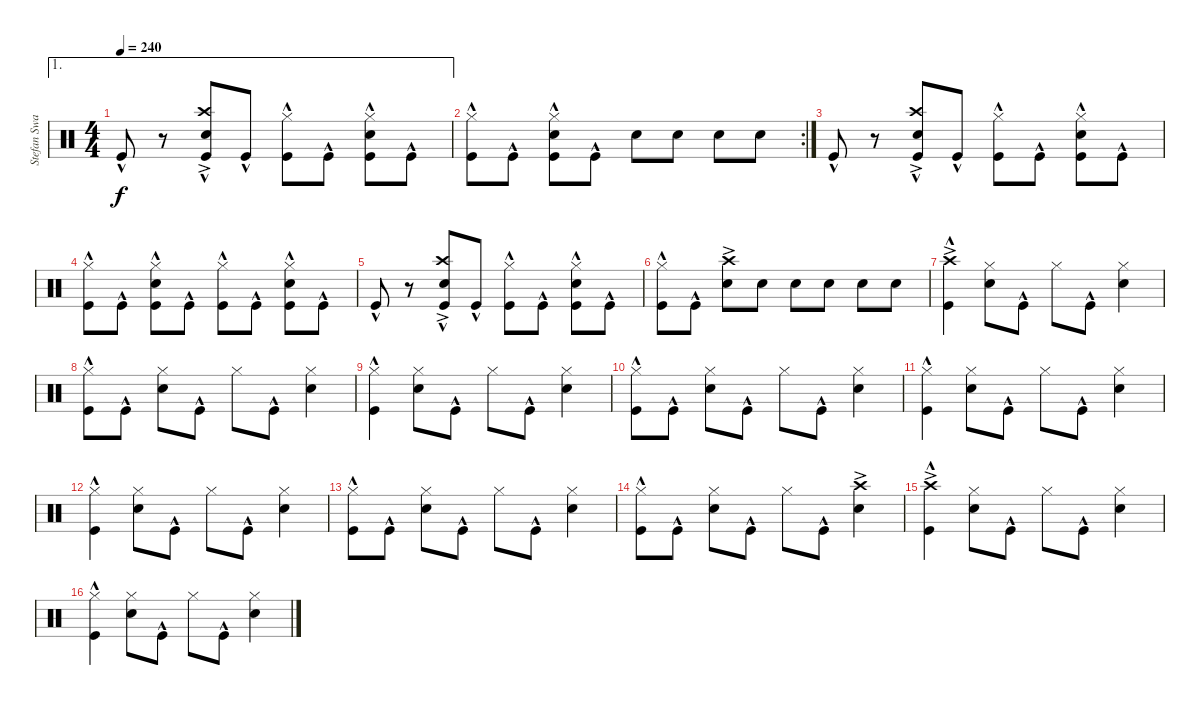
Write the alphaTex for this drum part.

\track ("Stefan Swarztmann" "Stefan Swa") {instrument percussion}
\staff {score}
\articulation defaults
\ae 1
\ts (4 4)
\tempo 240
\clef neutral
\ks c "Kick (hit)"{hac}.8{dy f}
r.8 ("Crash high (hit)"{ac} "Snare (hit) 2" "Kick (hit)"{hac}).8 "Kick (hit)"{hac}.8 ("Hi-Hat (closed)" "Kick (hit)"{hac}).8 "Kick (hit)"{hac}.8 ("Hi-Hat (closed)" "Snare (hit) 2" "Kick (hit)"{hac}).8 "Kick (hit)"{hac}.8 |
\rc 2
("Hi-Hat (closed)" "Kick (hit)"{hac}).8 "Kick (hit)"{hac}.8 ("Hi-Hat (closed)" "Snare (hit) 2" "Kick (hit)"{hac}).8 "Kick (hit)"{hac}.8 "Snare (hit) 2".8 "Snare (hit) 2".8 "Snare (hit) 2".8 "Snare (hit) 2".8 |
"Kick (hit)"{hac}.8 r.8 ("Crash high (hit)"{ac} "Snare (hit) 2" "Kick (hit)"{hac}).8 "Kick (hit)"{hac}.8 ("Hi-Hat (closed)" "Kick (hit)"{hac}).8 "Kick (hit)"{hac}.8 ("Hi-Hat (closed)" "Snare (hit) 2" "Kick (hit)"{hac}).8 "Kick (hit)"{hac}.8 |
("Hi-Hat (closed)" "Kick (hit)"{hac}).8 "Kick (hit)"{hac}.8 ("Hi-Hat (closed)" "Snare (hit) 2" "Kick (hit)"{hac}).8 "Kick (hit)"{hac}.8 ("Hi-Hat (closed)" "Kick (hit)"{hac}).8 "Kick (hit)"{hac}.8 ("Hi-Hat (closed)" "Snare (hit) 2" "Kick (hit)"{hac}).8 "Kick (hit)"{hac}.8 |
"Kick (hit)"{hac}.8 r.8 ("Crash high (hit)"{ac} "Snare (hit) 2" "Kick (hit)"{hac}).8 "Kick (hit)"{hac}.8 ("Hi-Hat (closed)" "Kick (hit)"{hac}).8 "Kick (hit)"{hac}.8 ("Hi-Hat (closed)" "Snare (hit) 2" "Kick (hit)"{hac}).8 "Kick (hit)"{hac}.8 |
("Hi-Hat (closed)" "Kick (hit)"{hac}).8 "Kick (hit)"{hac}.8 ("Crash high (hit)"{ac} "Snare (hit) 2").8 "Snare (hit) 2".8 "Snare (hit) 2".8 "Snare (hit) 2".8 "Snare (hit) 2".8 "Snare (hit) 2".8 |
("Crash high (hit)"{ac} "Kick (hit)"{hac}).4 ("Hi-Hat (closed)" "Snare (hit) 2").8 "Kick (hit)"{hac}.8 "Hi-Hat (closed)".8 "Kick (hit)"{hac}.8 ("Hi-Hat (closed)" "Snare (hit) 2").4 |
("Hi-Hat (closed)" "Kick (hit)"{hac}).8 "Kick (hit)"{hac}.8 ("Hi-Hat (closed)" "Snare (hit) 2").8 "Kick (hit)"{hac}.8 "Hi-Hat (closed)".8 "Kick (hit)"{hac}.8 ("Hi-Hat (closed)" "Snare (hit) 2").4 |
("Hi-Hat (closed)" "Kick (hit)"{hac}).4 ("Hi-Hat (closed)" "Snare (hit) 2").8 "Kick (hit)"{hac}.8 "Hi-Hat (closed)".8 "Kick (hit)"{hac}.8 ("Hi-Hat (closed)" "Snare (hit) 2").4 |
("Hi-Hat (closed)" "Kick (hit)"{hac}).8 "Kick (hit)"{hac}.8 ("Hi-Hat (closed)" "Snare (hit) 2").8 "Kick (hit)"{hac}.8 "Hi-Hat (closed)".8 "Kick (hit)"{hac}.8 ("Hi-Hat (closed)" "Snare (hit) 2").4 |
("Hi-Hat (closed)" "Kick (hit)"{hac}).4 ("Hi-Hat (closed)" "Snare (hit) 2").8 "Kick (hit)"{hac}.8 "Hi-Hat (closed)".8 "Kick (hit)"{hac}.8 ("Hi-Hat (closed)" "Snare (hit) 2").4 |
("Hi-Hat (closed)" "Kick (hit)"{hac}).4 ("Hi-Hat (closed)" "Snare (hit) 2").8 "Kick (hit)"{hac}.8 "Hi-Hat (closed)".8 "Kick (hit)"{hac}.8 ("Hi-Hat (closed)" "Snare (hit) 2").4 |
("Hi-Hat (closed)" "Kick (hit)"{hac}).8 "Kick (hit)"{hac}.8 ("Hi-Hat (closed)" "Snare (hit) 2").8 "Kick (hit)"{hac}.8 "Hi-Hat (closed)".8 "Kick (hit)"{hac}.8 ("Hi-Hat (closed)" "Snare (hit) 2").4 |
("Hi-Hat (closed)" "Kick (hit)"{hac}).8 "Kick (hit)"{hac}.8 ("Hi-Hat (closed)" "Snare (hit) 2").8 "Kick (hit)"{hac}.8 "Hi-Hat (closed)".8 "Kick (hit)"{hac}.8 ("Crash high (hit)"{ac} "Snare (hit) 2").4 |
("Crash high (hit)"{ac} "Kick (hit)"{hac}).4 ("Hi-Hat (closed)" "Snare (hit) 2").8 "Kick (hit)"{hac}.8 "Hi-Hat (closed)".8 "Kick (hit)"{hac}.8 ("Hi-Hat (closed)" "Snare (hit) 2").4 |
("Hi-Hat (closed)" "Kick (hit)"{hac}).4 ("Hi-Hat (closed)" "Snare (hit) 2").8 "Kick (hit)"{hac}.8 "Hi-Hat (closed)".8 "Kick (hit)"{hac}.8 ("Hi-Hat (closed)" "Snare (hit) 2").4
